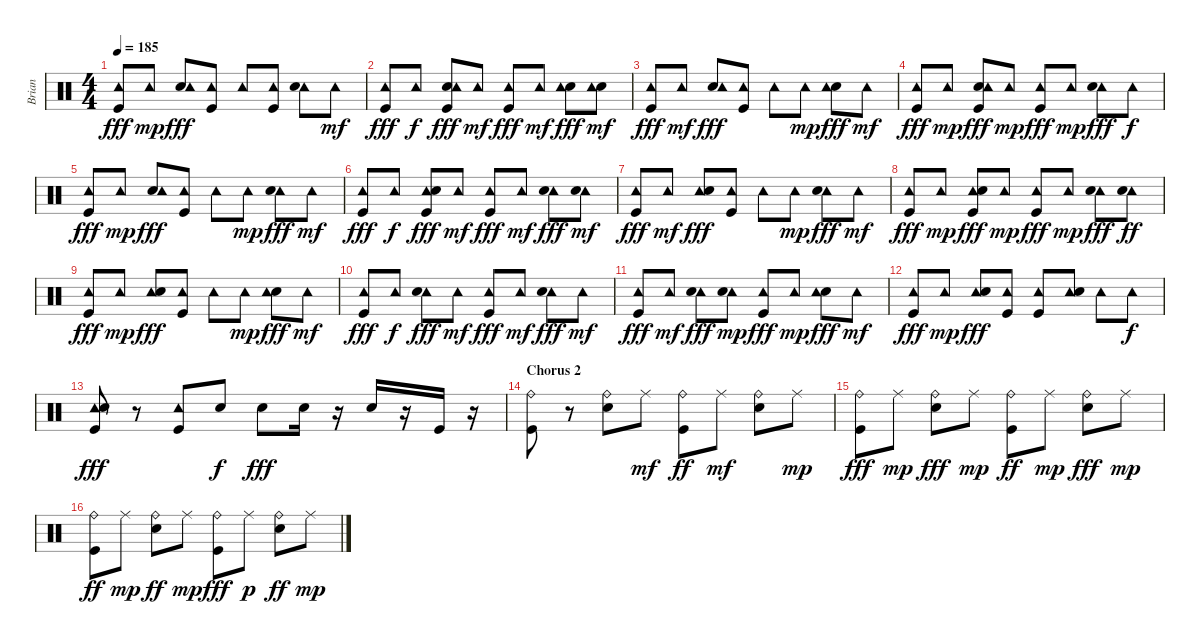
\track ("Brian" "Brian") {instrument percussion}
\staff {score}
\articulation defaults
\ts (4 4)
\tempo 185
\clef neutral
\ks c
("Kick (hit)" "Tambourine (hit)").8{dy fff} "Tambourine (hit)".8{dy mp} ("Electric Snare (hit)" "Tambourine (hit)").8{dy fff} ("Tambourine (hit)" "Kick (hit)").8 "Tambourine (hit)".8 ("Tambourine (hit)" "Kick (hit)").8 ("Tambourine (hit)" "Electric Snare (hit)").8 "Tambourine (hit)".8{dy mf} |
("Tambourine (hit)" "Kick (hit)").8{dy fff} "Tambourine (hit)".8{dy f} ("Kick (hit)" "Electric Snare (hit)" "Tambourine (hit)").8{dy fff} "Tambourine (hit)".8{dy mf} ("Tambourine (hit)" "Kick (hit)").8{dy fff} "Tambourine (hit)".8{dy mf} ("Electric Snare (hit)" "Tambourine (hit)").8{dy fff} ("Electric Snare (hit)" "Tambourine (hit)").8{dy mf} |
("Tambourine (hit)" "Kick (hit)").8{dy fff} "Tambourine (hit)".8{dy mf} ("Electric Snare (hit)" "Tambourine (hit)").8{dy fff} ("Tambourine (hit)" "Kick (hit)").8 "Tambourine (hit)".8 "Tambourine (hit)".8{dy mp} ("Electric Snare (hit)" "Tambourine (hit)").8{dy fff} "Tambourine (hit)".8{dy mf} |
("Tambourine (hit)" "Kick (hit)").8{dy fff} "Tambourine (hit)".8{dy mp} ("Electric Snare (hit)" "Kick (hit)" "Tambourine (hit)").8{dy fff} "Tambourine (hit)".8{dy mp} ("Tambourine (hit)" "Kick (hit)").8{dy fff} "Tambourine (hit)".8{dy mp} ("Tambourine (hit)" "Electric Snare (hit)").8{dy fff} "Tambourine (hit)".8{dy f} |
("Kick (hit)" "Tambourine (hit)").8{dy fff} "Tambourine (hit)".8{dy mp} ("Electric Snare (hit)" "Tambourine (hit)").8{dy fff} ("Tambourine (hit)" "Kick (hit)").8 "Tambourine (hit)".8 "Tambourine (hit)".8{dy mp} ("Tambourine (hit)" "Electric Snare (hit)").8{dy fff} "Tambourine (hit)".8{dy mf} |
("Tambourine (hit)" "Kick (hit)").8{dy fff} "Tambourine (hit)".8{dy f} ("Tambourine (hit)" "Electric Snare (hit)" "Kick (hit)").8{dy fff} "Tambourine (hit)".8{dy mf} ("Tambourine (hit)" "Kick (hit)").8{dy fff} "Tambourine (hit)".8{dy mf} ("Tambourine (hit)" "Electric Snare (hit)").8{dy fff} ("Tambourine (hit)" "Electric Snare (hit)").8{dy mf} |
("Tambourine (hit)" "Kick (hit)").8{dy fff} "Tambourine (hit)".8{dy mf} ("Tambourine (hit)" "Electric Snare (hit)").8{dy fff} ("Tambourine (hit)" "Kick (hit)").8 "Tambourine (hit)".8 "Tambourine (hit)".8{dy mp} ("Tambourine (hit)" "Electric Snare (hit)").8{dy fff} "Tambourine (hit)".8{dy mf} |
("Tambourine (hit)" "Kick (hit)").8{dy fff} "Tambourine (hit)".8{dy mp} ("Tambourine (hit)" "Electric Snare (hit)" "Kick (hit)").8{dy fff} "Tambourine (hit)".8{dy mp} ("Tambourine (hit)" "Kick (hit)").8{dy fff} "Tambourine (hit)".8{dy mp} ("Tambourine (hit)" "Electric Snare (hit)").8{dy fff} ("Tambourine (hit)" "Electric Snare (hit)").8{dy ff} |
("Kick (hit)" "Tambourine (hit)").8{dy fff} "Tambourine (hit)".8{dy mp} ("Tambourine (hit)" "Electric Snare (hit)").8{dy fff} ("Tambourine (hit)" "Kick (hit)").8 "Tambourine (hit)".8 "Tambourine (hit)".8{dy mp} ("Electric Snare (hit)" "Tambourine (hit)").8{dy fff} "Tambourine (hit)".8{dy mf} |
("Tambourine (hit)" "Kick (hit)").8{dy fff} "Tambourine (hit)".8{dy f} ("Tambourine (hit)" "Electric Snare (hit)").8{dy fff} "Tambourine (hit)".8{dy mf} ("Tambourine (hit)" "Kick (hit)").8{dy fff} "Tambourine (hit)".8{dy mf} ("Tambourine (hit)" "Electric Snare (hit)").8{dy fff} "Tambourine (hit)".8{dy mf} |
("Tambourine (hit)" "Kick (hit)").8{dy fff} "Tambourine (hit)".8{dy mf} ("Tambourine (hit)" "Electric Snare (hit)").8{dy fff} ("Tambourine (hit)" "Electric Snare (hit)").8{dy mp} ("Tambourine (hit)" "Kick (hit)").8{dy fff} "Tambourine (hit)".8{dy mp} ("Electric Snare (hit)" "Tambourine (hit)").8{dy fff} "Tambourine (hit)".8{dy mf} |
("Tambourine (hit)" "Kick (hit)").8{dy fff} "Tambourine (hit)".8{dy mp} ("Tambourine (hit)" "Electric Snare (hit)").8{dy fff} ("Tambourine (hit)" "Kick (hit)").8 ("Tambourine (hit)" "Kick (hit)").8 ("Tambourine (hit)" "Electric Snare (hit)").8 "Tambourine (hit)".8 "Tambourine (hit)".8{dy f} |
("Tambourine (hit)" "Electric Snare (hit)" "Kick (hit)").8{dy fff} r.8 ("Tambourine (hit)" "Kick (hit)").8 "Electric Snare (hit)".8{dy f} "Electric Snare (hit)".8{dy fff} "Electric Snare (hit)".16 r.16 "Electric Snare (hit)".16 r.16 "Kick (hit)".16 r.16 |
\section ("" "Chorus 2")
("Ride (bell)" "Kick (hit)").8 r.8 ("Electric Snare (hit)" "Ride (bell)").8 "Ride (middle)".8{dy mf} ("Kick (hit)" "Ride (bell)").8{dy ff} "Ride (middle)".8{dy mf} ("Electric Snare (hit)" "Ride (bell)").8 "Ride (middle)".8{dy mp} |
("Ride (bell)" "Kick (hit)").8{dy fff} "Ride (middle)".8{dy mp} ("Electric Snare (hit)" "Ride (bell)").8{dy fff} "Ride (middle)".8{dy mp} ("Kick (hit)" "Ride (bell)").8{dy ff} "Ride (middle)".8{dy mp} ("Electric Snare (hit)" "Ride (bell)").8{dy fff} "Ride (middle)".8{dy mp} |
("Kick (hit)" "Ride (bell)").8{dy ff} "Ride (middle)".8{dy mp} ("Electric Snare (hit)" "Ride (bell)").8{dy ff} "Ride (middle)".8{dy mp} ("Ride (bell)" "Kick (hit)").8{dy fff} "Ride (middle)".8{dy p} ("Electric Snare (hit)" "Ride (bell)").8{dy ff} "Ride (middle)".8{dy mp}
